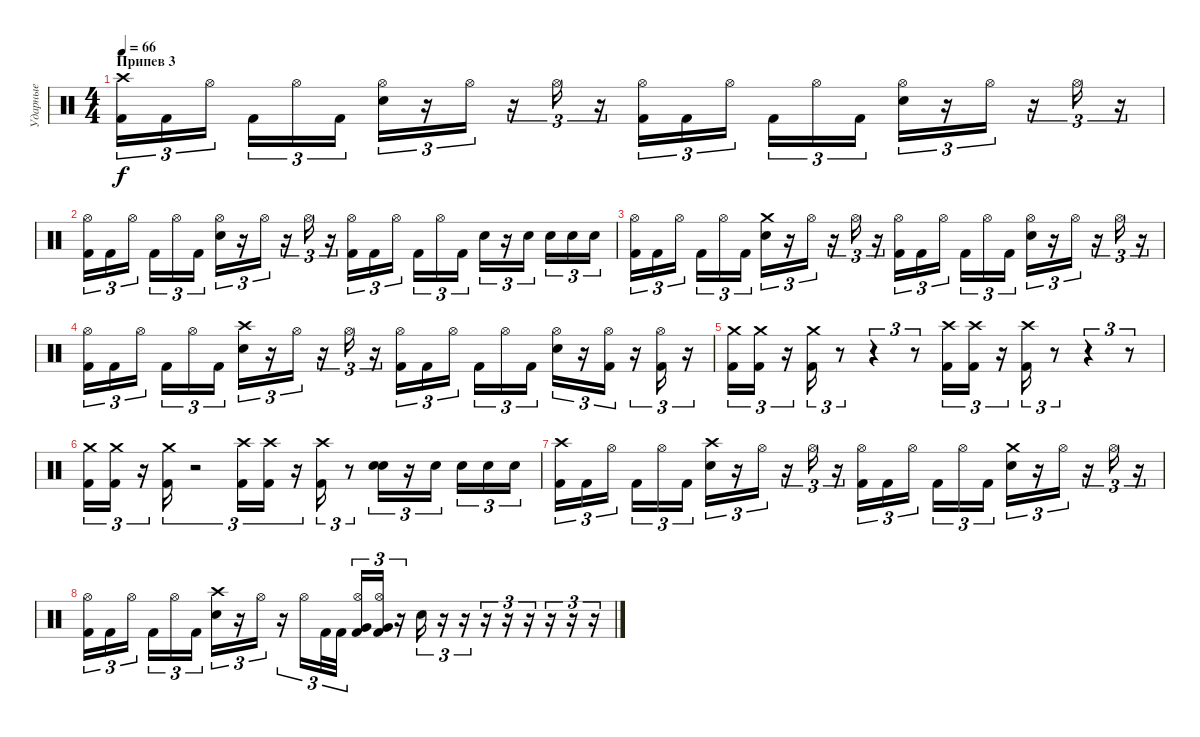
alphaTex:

\track ("Ударные" "Ударные") {instrument percussion}
\staff {score}
\articulation defaults
\ts (4 4)
\section ("" "Припев 3")
\tempo 66
\clef neutral
\ks c
("Crash high (hit)" "Kick (hit) 2").16{tu (3 2) dy f} "Kick (hit) 2".16{tu (3 2)} "Hi-Hat (open)".16{tu (3 2)} "Kick (hit) 2".16{tu (3 2)} "Hi-Hat (open)".16{tu (3 2)} "Kick (hit) 2".16{tu (3 2)} ("Hi-Hat (open)" "Snare (hit) 2").16{tu (3 2)} r.16{tu (3 2)} "Hi-Hat (open)".16{tu (3 2)} r.16{tu (3 2)} "Hi-Hat (open)".16{tu (3 2)} r.16{tu (3 2)} ("Hi-Hat (open)" "Kick (hit) 2").16{tu (3 2)} "Kick (hit) 2".16{tu (3 2)} "Hi-Hat (open)".16{tu (3 2)} "Kick (hit) 2".16{tu (3 2)} "Hi-Hat (open)".16{tu (3 2)} "Kick (hit) 2".16{tu (3 2)} ("Hi-Hat (open)" "Snare (hit) 2").16{tu (3 2)} r.16{tu (3 2)} "Hi-Hat (open)".16{tu (3 2)} r.16{tu (3 2)} "Hi-Hat (open)".16{tu (3 2)} r.16{tu (3 2)} |
("Hi-Hat (open)" "Kick (hit) 2").16{tu (3 2)} "Kick (hit) 2".16{tu (3 2)} "Hi-Hat (open)".16{tu (3 2)} "Kick (hit) 2".16{tu (3 2)} "Hi-Hat (open)".16{tu (3 2)} "Kick (hit) 2".16{tu (3 2)} ("Hi-Hat (open)" "Snare (hit) 2").16{tu (3 2)} r.16{tu (3 2)} "Hi-Hat (open)".16{tu (3 2)} r.16{tu (3 2)} "Hi-Hat (open)".16{tu (3 2)} r.16{tu (3 2)} ("Hi-Hat (open)" "Kick (hit) 2").16{tu (3 2)} "Kick (hit) 2".16{tu (3 2)} "Hi-Hat (open)".16{tu (3 2)} "Kick (hit) 2".16{tu (3 2)} "Hi-Hat (open)".16{tu (3 2)} "Kick (hit) 2".16{tu (3 2)} "Snare (hit) 2".16{tu (3 2)} r.16{tu (3 2)} "Snare (hit) 2".16{tu (3 2)} "Snare (hit) 2".16{tu (3 2)} "Snare (hit) 2".16{tu (3 2)} "Snare (hit) 2".16{tu (3 2)} |
("Hi-Hat (open)" "Kick (hit) 2").16{tu (3 2)} "Kick (hit) 2".16{tu (3 2)} "Hi-Hat (open)".16{tu (3 2)} "Kick (hit) 2".16{tu (3 2)} "Hi-Hat (open)".16{tu (3 2)} "Kick (hit) 2".16{tu (3 2)} ("Crash medium (hit)" "Snare (hit) 2").16{tu (3 2)} r.16{tu (3 2)} "Hi-Hat (open)".16{tu (3 2)} r.16{tu (3 2)} "Hi-Hat (open)".16{tu (3 2)} r.16{tu (3 2)} ("Hi-Hat (open)" "Kick (hit) 2").16{tu (3 2)} "Kick (hit) 2".16{tu (3 2)} "Hi-Hat (open)".16{tu (3 2)} "Kick (hit) 2".16{tu (3 2)} "Hi-Hat (open)".16{tu (3 2)} "Kick (hit) 2".16{tu (3 2)} ("Hi-Hat (open)" "Snare (hit) 2").16{tu (3 2)} r.16{tu (3 2)} "Hi-Hat (open)".16{tu (3 2)} r.16{tu (3 2)} "Hi-Hat (open)".16{tu (3 2)} r.16{tu (3 2)} |
("Hi-Hat (open)" "Kick (hit) 2").16{tu (3 2)} "Kick (hit) 2".16{tu (3 2)} "Hi-Hat (open)".16{tu (3 2)} "Kick (hit) 2".16{tu (3 2)} "Hi-Hat (open)".16{tu (3 2)} "Kick (hit) 2".16{tu (3 2)} ("Crash high (hit)" "Snare (hit) 2").16{tu (3 2)} r.16{tu (3 2)} "Hi-Hat (open)".16{tu (3 2)} r.16{tu (3 2)} "Hi-Hat (open)".16{tu (3 2)} r.16{tu (3 2)} ("Hi-Hat (open)" "Kick (hit) 2").16{tu (3 2)} "Kick (hit) 2".16{tu (3 2)} "Hi-Hat (open)".16{tu (3 2)} "Kick (hit) 2".16{tu (3 2)} "Hi-Hat (open)".16{tu (3 2)} "Kick (hit) 2".16{tu (3 2)} ("Hi-Hat (open)" "Snare (hit) 2").16{tu (3 2)} r.16{tu (3 2)} ("Hi-Hat (open)" "Kick (hit) 2").16{tu (3 2)} r.16{tu (3 2)} ("Hi-Hat (open)" "Kick (hit) 2").16{tu (3 2)} r.16{tu (3 2)} |
("Crash medium (hit)" "Kick (hit) 2").16{tu (3 2)} ("Crash medium (hit)" "Kick (hit) 2").16{tu (3 2)} r.16{tu (3 2)} ("Crash medium (hit)" "Kick (hit) 2").16{tu (3 2)} r.8{tu (3 2)} r.4{tu (3 2)} r.8{tu (3 2)} ("Crash high (hit)" "Kick (hit) 2").16{tu (3 2)} ("Crash high (hit)" "Kick (hit) 2").16{tu (3 2)} r.16{tu (3 2)} ("Crash high (hit)" "Kick (hit) 2").16{tu (3 2)} r.8{tu (3 2)} r.4{tu (3 2)} r.8{tu (3 2)} |
("Crash medium (hit)" "Kick (hit) 2").16{tu (3 2)} ("Crash medium (hit)" "Kick (hit) 2").16{tu (3 2)} r.16{tu (3 2)} ("Crash medium (hit)" "Kick (hit) 2").16{tu (3 2)} r.2{tu (3 2)} ("Crash high (hit)" "Kick (hit) 2").16{tu (3 2)} ("Crash high (hit)" "Kick (hit) 2").16{tu (3 2)} r.16{tu (3 2)} ("Crash high (hit)" "Kick (hit) 2").16{tu (3 2)} r.8{tu (3 2)} ("Snare (hit) 2" "Snare (hit) 2").16{tu (3 2)} r.16{tu (3 2)} "Snare (hit) 2".16{tu (3 2)} "Snare (hit) 2".16{tu (3 2)} "Snare (hit) 2".16{tu (3 2)} "Snare (hit) 2".16{tu (3 2)} |
("Crash high (hit)" "Kick (hit) 2").16{tu (3 2)} "Kick (hit) 2".16{tu (3 2)} "Hi-Hat (open)".16{tu (3 2)} "Kick (hit) 2".16{tu (3 2)} "Hi-Hat (open)".16{tu (3 2)} "Kick (hit) 2".16{tu (3 2)} ("Crash high (hit)" "Snare (hit) 2").16{tu (3 2)} r.16{tu (3 2)} "Hi-Hat (open)".16{tu (3 2)} r.16{tu (3 2)} "Hi-Hat (open)".16{tu (3 2)} r.16{tu (3 2)} ("Hi-Hat (open)" "Kick (hit) 2").16{tu (3 2)} "Kick (hit) 2".16{tu (3 2)} "Hi-Hat (open)".16{tu (3 2)} "Kick (hit) 2".16{tu (3 2)} "Hi-Hat (open)".16{tu (3 2)} "Kick (hit) 2".16{tu (3 2)} ("Crash medium (hit)" "Snare (hit) 2").16{tu (3 2)} r.16{tu (3 2)} "Hi-Hat (open)".16{tu (3 2)} r.16{tu (3 2)} "Hi-Hat (open)".16{tu (3 2)} r.16{tu (3 2)} |
("Hi-Hat (open)" "Kick (hit) 2").16{tu (3 2)} "Kick (hit) 2".16{tu (3 2)} "Hi-Hat (open)".16{tu (3 2)} "Kick (hit) 2".16{tu (3 2)} "Hi-Hat (open)".16{tu (3 2)} "Kick (hit) 2".16{tu (3 2)} ("Crash high (hit)" "Snare (hit) 2").16{tu (3 2)} r.16{tu (3 2)} "Hi-Hat (open)".16{tu (3 2)} r.16{tu (3 2)} "Hi-Hat (open)".16{tu (3 2)} "Kick (hit) 2".32{tu (3 2)} "Kick (hit) 2".32{tu (3 2)} ("Hi-Hat (open)" "Very Low Tom (hit)" "Kick (hit) 2").16{tu (3 2)} ("Hi-Hat (open)" "Very Low Tom (hit)" "Kick (hit) 2").16{tu (3 2)} r.16{tu (3 2)} "Snare (hit) 2".16{tu (3 2)} r.16{tu (3 2)} r.16{tu (3 2)} r.16{tu (3 2)} r.16{tu (3 2)} r.16{tu (3 2)} r.16{tu (3 2)} r.16{tu (3 2)} r.16{tu (3 2)}
